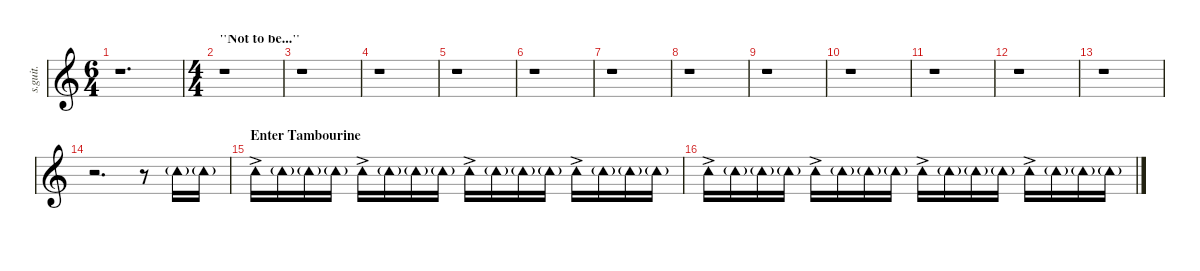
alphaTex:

\defaultSystemsLayout 4
\hideDynamics
\bracketExtendMode nobrackets
\track ("Steve Lamos" "s.guit.") {instrument percussion}
\staff {score}
\articulation defaults
\ts (6 4)
\tempo (144 hide)
\clef g2
\ks c
r.1{d dy mf} |
\ts (4 4)
\beaming (8 2 2 2 2)
\section ("" "\"Not to be...\"")
r.1 |
r.1 |
r.1 |
r.1 |
r.1 |
r.1 |
r.1 |
r.1 |
r.1 |
r.1 |
r.1 |
r.1 |
r.2{d} r.8 "Tambourine (hit)"{g}.16{lyrics (0 "") lyrics (1 "") lyrics (2 "") lyrics (3 "") lyrics (4 "")} "Tambourine (hit)"{g}.16{lyrics (0 "") lyrics (1 "") lyrics (2 "") lyrics (3 "") lyrics (4 "")} |
\section ("" "Enter Tambourine")
"Tambourine (hit)"{ac}.16{lyrics (0 "") lyrics (1 "") lyrics (2 "") lyrics (3 "") lyrics (4 "")} "Tambourine (hit)"{g}.16{lyrics (0 "") lyrics (1 "") lyrics (2 "") lyrics (3 "") lyrics (4 "") dy f} "Tambourine (hit)"{g}.16{lyrics (0 "") lyrics (1 "") lyrics (2 "") lyrics (3 "") lyrics (4 "")} "Tambourine (hit)"{g}.16{lyrics (0 "") lyrics (1 "") lyrics (2 "") lyrics (3 "") lyrics (4 "")} "Tambourine (hit)"{ac}.16{lyrics (0 "") lyrics (1 "") lyrics (2 "") lyrics (3 "") lyrics (4 "") dy mf} "Tambourine (hit)"{g}.16{lyrics (0 "") lyrics (1 "") lyrics (2 "") lyrics (3 "") lyrics (4 "") dy f} "Tambourine (hit)"{g}.16{lyrics (0 "") lyrics (1 "") lyrics (2 "") lyrics (3 "") lyrics (4 "")} "Tambourine (hit)"{g}.16{lyrics (0 "") lyrics (1 "") lyrics (2 "") lyrics (3 "") lyrics (4 "")} "Tambourine (hit)"{ac}.16{lyrics (0 "") lyrics (1 "") lyrics (2 "") lyrics (3 "") lyrics (4 "") dy mf} "Tambourine (hit)"{g}.16{lyrics (0 "") lyrics (1 "") lyrics (2 "") lyrics (3 "") lyrics (4 "") dy f} "Tambourine (hit)"{g}.16{lyrics (0 "") lyrics (1 "") lyrics (2 "") lyrics (3 "") lyrics (4 "")} "Tambourine (hit)"{g}.16{lyrics (0 "") lyrics (1 "") lyrics (2 "") lyrics (3 "") lyrics (4 "")} "Tambourine (hit)"{ac}.16{lyrics (0 "") lyrics (1 "") lyrics (2 "") lyrics (3 "") lyrics (4 "") dy mf} "Tambourine (hit)"{g}.16{lyrics (0 "") lyrics (1 "") lyrics (2 "") lyrics (3 "") lyrics (4 "") dy f} "Tambourine (hit)"{g}.16{lyrics (0 "") lyrics (1 "") lyrics (2 "") lyrics (3 "") lyrics (4 "")} "Tambourine (hit)"{g}.16{lyrics (0 "") lyrics (1 "") lyrics (2 "") lyrics (3 "") lyrics (4 "")} |
"Tambourine (hit)"{ac}.16{lyrics (0 "") lyrics (1 "") lyrics (2 "") lyrics (3 "") lyrics (4 "") dy mf} "Tambourine (hit)"{g}.16{lyrics (0 "") lyrics (1 "") lyrics (2 "") lyrics (3 "") lyrics (4 "") dy f} "Tambourine (hit)"{g}.16{lyrics (0 "") lyrics (1 "") lyrics (2 "") lyrics (3 "") lyrics (4 "")} "Tambourine (hit)"{g}.16{lyrics (0 "") lyrics (1 "") lyrics (2 "") lyrics (3 "") lyrics (4 "")} "Tambourine (hit)"{ac}.16{lyrics (0 "") lyrics (1 "") lyrics (2 "") lyrics (3 "") lyrics (4 "") dy mf} "Tambourine (hit)"{g}.16{lyrics (0 "") lyrics (1 "") lyrics (2 "") lyrics (3 "") lyrics (4 "") dy f} "Tambourine (hit)"{g}.16{lyrics (0 "") lyrics (1 "") lyrics (2 "") lyrics (3 "") lyrics (4 "")} "Tambourine (hit)"{g}.16{lyrics (0 "") lyrics (1 "") lyrics (2 "") lyrics (3 "") lyrics (4 "")} "Tambourine (hit)"{ac}.16{lyrics (0 "") lyrics (1 "") lyrics (2 "") lyrics (3 "") lyrics (4 "") dy mf} "Tambourine (hit)"{g}.16{lyrics (0 "") lyrics (1 "") lyrics (2 "") lyrics (3 "") lyrics (4 "") dy f} "Tambourine (hit)"{g}.16{lyrics (0 "") lyrics (1 "") lyrics (2 "") lyrics (3 "") lyrics (4 "")} "Tambourine (hit)"{g}.16{lyrics (0 "") lyrics (1 "") lyrics (2 "") lyrics (3 "") lyrics (4 "")} "Tambourine (hit)"{ac}.16{lyrics (0 "") lyrics (1 "") lyrics (2 "") lyrics (3 "") lyrics (4 "") dy mf} "Tambourine (hit)"{g}.16{lyrics (0 "") lyrics (1 "") lyrics (2 "") lyrics (3 "") lyrics (4 "") dy f} "Tambourine (hit)"{g}.16{lyrics (0 "") lyrics (1 "") lyrics (2 "") lyrics (3 "") lyrics (4 "")} "Tambourine (hit)"{g}.16{lyrics (0 "") lyrics (1 "") lyrics (2 "") lyrics (3 "") lyrics (4 "")}
